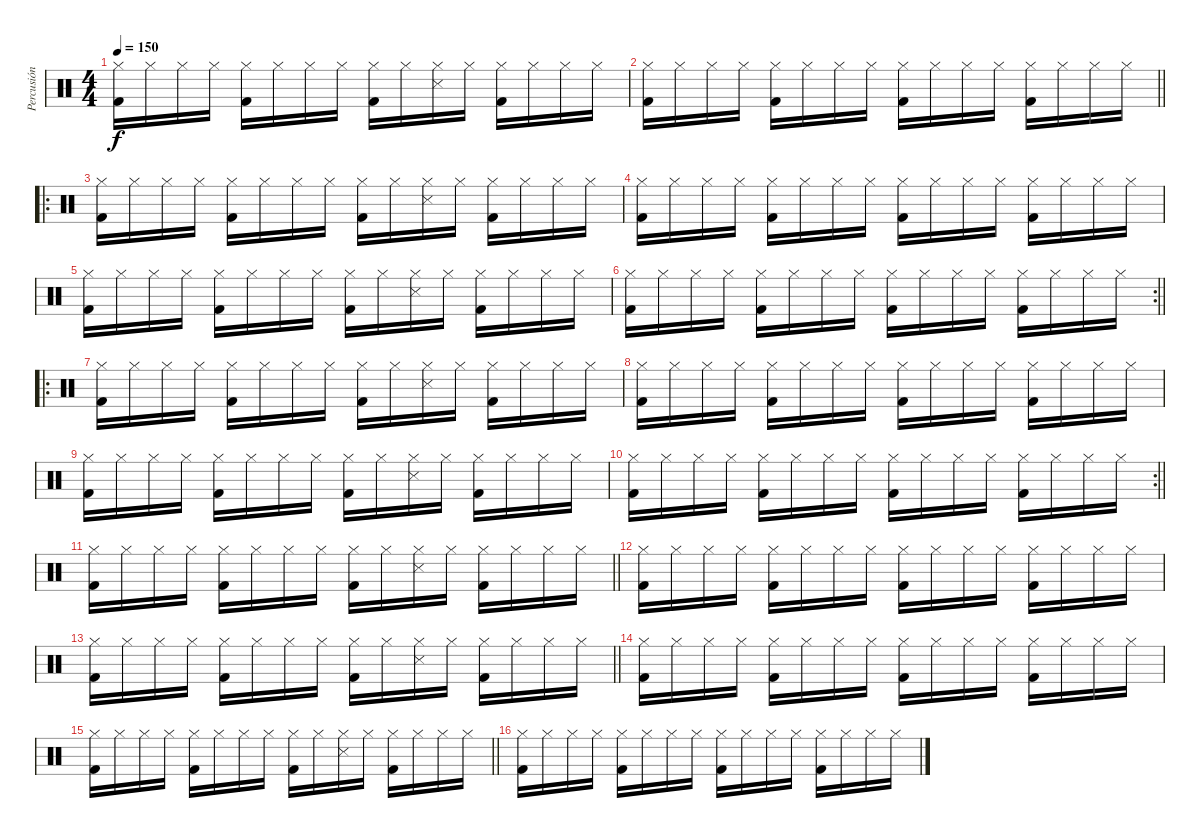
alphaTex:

\track ("Percusión" "Percusión") {instrument percussion}
\staff {score}
\articulation defaults
\ts (4 4)
\tempo 150
\clef neutral
\ks c
("Kick (hit) 2" "Hi-Hat (closed)").16{dy f} "Hi-Hat (closed)".16 "Hi-Hat (closed)".16 "Hi-Hat (closed)".16 ("Kick (hit) 2" "Hi-Hat (closed)").16 "Hi-Hat (closed)".16 "Hi-Hat (closed)".16 "Hi-Hat (closed)".16 ("Kick (hit) 2" "Hi-Hat (closed)").16 "Hi-Hat (closed)".16 ("Snare (side stick) 3" "Hi-Hat (closed)").16 "Hi-Hat (closed)".16 ("Kick (hit) 2" "Hi-Hat (closed)").16 "Hi-Hat (closed)".16 "Hi-Hat (closed)".16 "Hi-Hat (closed)".16 |
\barLineRight lightlight
("Kick (hit) 2" "Hi-Hat (closed)").16 "Hi-Hat (closed)".16 "Hi-Hat (closed)".16 "Hi-Hat (closed)".16 ("Kick (hit) 2" "Hi-Hat (closed)").16 "Hi-Hat (closed)".16 "Hi-Hat (closed)".16 "Hi-Hat (closed)".16 ("Kick (hit) 2" "Hi-Hat (closed)").16 "Hi-Hat (closed)".16 "Hi-Hat (closed)".16 "Hi-Hat (closed)".16 ("Kick (hit) 2" "Hi-Hat (closed)").16 "Hi-Hat (closed)".16 "Hi-Hat (closed)".16 "Hi-Hat (closed)".16 |
\ro
("Kick (hit) 2" "Hi-Hat (closed)").16 "Hi-Hat (closed)".16 "Hi-Hat (closed)".16 "Hi-Hat (closed)".16 ("Kick (hit) 2" "Hi-Hat (closed)").16 "Hi-Hat (closed)".16 "Hi-Hat (closed)".16 "Hi-Hat (closed)".16 ("Kick (hit) 2" "Hi-Hat (closed)").16 "Hi-Hat (closed)".16 ("Snare (side stick) 3" "Hi-Hat (closed)").16 "Hi-Hat (closed)".16 ("Kick (hit) 2" "Hi-Hat (closed)").16 "Hi-Hat (closed)".16 "Hi-Hat (closed)".16 "Hi-Hat (closed)".16 |
("Kick (hit) 2" "Hi-Hat (closed)").16 "Hi-Hat (closed)".16 "Hi-Hat (closed)".16 "Hi-Hat (closed)".16 ("Kick (hit) 2" "Hi-Hat (closed)").16 "Hi-Hat (closed)".16 "Hi-Hat (closed)".16 "Hi-Hat (closed)".16 ("Kick (hit) 2" "Hi-Hat (closed)").16 "Hi-Hat (closed)".16 "Hi-Hat (closed)".16 "Hi-Hat (closed)".16 ("Kick (hit) 2" "Hi-Hat (closed)").16 "Hi-Hat (closed)".16 "Hi-Hat (closed)".16 "Hi-Hat (closed)".16 |
("Kick (hit) 2" "Hi-Hat (closed)").16 "Hi-Hat (closed)".16 "Hi-Hat (closed)".16 "Hi-Hat (closed)".16 ("Kick (hit) 2" "Hi-Hat (closed)").16 "Hi-Hat (closed)".16 "Hi-Hat (closed)".16 "Hi-Hat (closed)".16 ("Kick (hit) 2" "Hi-Hat (closed)").16 "Hi-Hat (closed)".16 ("Snare (side stick) 3" "Hi-Hat (closed)").16 "Hi-Hat (closed)".16 ("Kick (hit) 2" "Hi-Hat (closed)").16 "Hi-Hat (closed)".16 "Hi-Hat (closed)".16 "Hi-Hat (closed)".16 |
\rc 2
\barLineRight lightlight
("Kick (hit) 2" "Hi-Hat (closed)").16 "Hi-Hat (closed)".16 "Hi-Hat (closed)".16 "Hi-Hat (closed)".16 ("Kick (hit) 2" "Hi-Hat (closed)").16 "Hi-Hat (closed)".16 "Hi-Hat (closed)".16 "Hi-Hat (closed)".16 ("Kick (hit) 2" "Hi-Hat (closed)").16 "Hi-Hat (closed)".16 "Hi-Hat (closed)".16 "Hi-Hat (closed)".16 ("Kick (hit) 2" "Hi-Hat (closed)").16 "Hi-Hat (closed)".16 "Hi-Hat (closed)".16 "Hi-Hat (closed)".16 |
\ro
("Kick (hit) 2" "Hi-Hat (closed)").16 "Hi-Hat (closed)".16 "Hi-Hat (closed)".16 "Hi-Hat (closed)".16 ("Kick (hit) 2" "Hi-Hat (closed)").16 "Hi-Hat (closed)".16 "Hi-Hat (closed)".16 "Hi-Hat (closed)".16 ("Kick (hit) 2" "Hi-Hat (closed)").16 "Hi-Hat (closed)".16 ("Snare (side stick) 3" "Hi-Hat (closed)").16 "Hi-Hat (closed)".16 ("Kick (hit) 2" "Hi-Hat (closed)").16 "Hi-Hat (closed)".16 "Hi-Hat (closed)".16 "Hi-Hat (closed)".16 |
("Kick (hit) 2" "Hi-Hat (closed)").16 "Hi-Hat (closed)".16 "Hi-Hat (closed)".16 "Hi-Hat (closed)".16 ("Kick (hit) 2" "Hi-Hat (closed)").16 "Hi-Hat (closed)".16 "Hi-Hat (closed)".16 "Hi-Hat (closed)".16 ("Kick (hit) 2" "Hi-Hat (closed)").16 "Hi-Hat (closed)".16 "Hi-Hat (closed)".16 "Hi-Hat (closed)".16 ("Kick (hit) 2" "Hi-Hat (closed)").16 "Hi-Hat (closed)".16 "Hi-Hat (closed)".16 "Hi-Hat (closed)".16 |
("Kick (hit) 2" "Hi-Hat (closed)").16 "Hi-Hat (closed)".16 "Hi-Hat (closed)".16 "Hi-Hat (closed)".16 ("Kick (hit) 2" "Hi-Hat (closed)").16 "Hi-Hat (closed)".16 "Hi-Hat (closed)".16 "Hi-Hat (closed)".16 ("Kick (hit) 2" "Hi-Hat (closed)").16 "Hi-Hat (closed)".16 ("Snare (side stick) 3" "Hi-Hat (closed)").16 "Hi-Hat (closed)".16 ("Kick (hit) 2" "Hi-Hat (closed)").16 "Hi-Hat (closed)".16 "Hi-Hat (closed)".16 "Hi-Hat (closed)".16 |
\rc 2
\barLineRight lightlight
("Kick (hit) 2" "Hi-Hat (closed)").16 "Hi-Hat (closed)".16 "Hi-Hat (closed)".16 "Hi-Hat (closed)".16 ("Kick (hit) 2" "Hi-Hat (closed)").16 "Hi-Hat (closed)".16 "Hi-Hat (closed)".16 "Hi-Hat (closed)".16 ("Kick (hit) 2" "Hi-Hat (closed)").16 "Hi-Hat (closed)".16 "Hi-Hat (closed)".16 "Hi-Hat (closed)".16 ("Kick (hit) 2" "Hi-Hat (closed)").16 "Hi-Hat (closed)".16 "Hi-Hat (closed)".16 "Hi-Hat (closed)".16 |
\barLineRight lightlight
("Kick (hit) 2" "Hi-Hat (closed)").16 "Hi-Hat (closed)".16 "Hi-Hat (closed)".16 "Hi-Hat (closed)".16 ("Kick (hit) 2" "Hi-Hat (closed)").16 "Hi-Hat (closed)".16 "Hi-Hat (closed)".16 "Hi-Hat (closed)".16 ("Kick (hit) 2" "Hi-Hat (closed)").16 "Hi-Hat (closed)".16 ("Snare (side stick) 3" "Hi-Hat (closed)").16 "Hi-Hat (closed)".16 ("Kick (hit) 2" "Hi-Hat (closed)").16 "Hi-Hat (closed)".16 "Hi-Hat (closed)".16 "Hi-Hat (closed)".16 |
("Kick (hit) 2" "Hi-Hat (closed)").16 "Hi-Hat (closed)".16 "Hi-Hat (closed)".16 "Hi-Hat (closed)".16 ("Kick (hit) 2" "Hi-Hat (closed)").16 "Hi-Hat (closed)".16 "Hi-Hat (closed)".16 "Hi-Hat (closed)".16 ("Kick (hit) 2" "Hi-Hat (closed)").16 "Hi-Hat (closed)".16 "Hi-Hat (closed)".16 "Hi-Hat (closed)".16 ("Kick (hit) 2" "Hi-Hat (closed)").16 "Hi-Hat (closed)".16 "Hi-Hat (closed)".16 "Hi-Hat (closed)".16 |
\barLineRight lightlight
("Kick (hit) 2" "Hi-Hat (closed)").16 "Hi-Hat (closed)".16 "Hi-Hat (closed)".16 "Hi-Hat (closed)".16 ("Kick (hit) 2" "Hi-Hat (closed)").16 "Hi-Hat (closed)".16 "Hi-Hat (closed)".16 "Hi-Hat (closed)".16 ("Kick (hit) 2" "Hi-Hat (closed)").16 "Hi-Hat (closed)".16 ("Snare (side stick) 3" "Hi-Hat (closed)").16 "Hi-Hat (closed)".16 ("Kick (hit) 2" "Hi-Hat (closed)").16 "Hi-Hat (closed)".16 "Hi-Hat (closed)".16 "Hi-Hat (closed)".16 |
("Kick (hit) 2" "Hi-Hat (closed)").16 "Hi-Hat (closed)".16 "Hi-Hat (closed)".16 "Hi-Hat (closed)".16 ("Kick (hit) 2" "Hi-Hat (closed)").16 "Hi-Hat (closed)".16 "Hi-Hat (closed)".16 "Hi-Hat (closed)".16 ("Kick (hit) 2" "Hi-Hat (closed)").16 "Hi-Hat (closed)".16 "Hi-Hat (closed)".16 "Hi-Hat (closed)".16 ("Kick (hit) 2" "Hi-Hat (closed)").16 "Hi-Hat (closed)".16 "Hi-Hat (closed)".16 "Hi-Hat (closed)".16 |
\barLineRight lightlight
("Kick (hit) 2" "Hi-Hat (closed)").16 "Hi-Hat (closed)".16 "Hi-Hat (closed)".16 "Hi-Hat (closed)".16 ("Kick (hit) 2" "Hi-Hat (closed)").16 "Hi-Hat (closed)".16 "Hi-Hat (closed)".16 "Hi-Hat (closed)".16 ("Kick (hit) 2" "Hi-Hat (closed)").16 "Hi-Hat (closed)".16 ("Snare (side stick) 3" "Hi-Hat (closed)").16 "Hi-Hat (closed)".16 ("Kick (hit) 2" "Hi-Hat (closed)").16 "Hi-Hat (closed)".16 "Hi-Hat (closed)".16 "Hi-Hat (closed)".16 |
("Kick (hit) 2" "Hi-Hat (closed)").16 "Hi-Hat (closed)".16 "Hi-Hat (closed)".16 "Hi-Hat (closed)".16 ("Kick (hit) 2" "Hi-Hat (closed)").16 "Hi-Hat (closed)".16 "Hi-Hat (closed)".16 "Hi-Hat (closed)".16 ("Kick (hit) 2" "Hi-Hat (closed)").16 "Hi-Hat (closed)".16 "Hi-Hat (closed)".16 "Hi-Hat (closed)".16 ("Kick (hit) 2" "Hi-Hat (closed)").16 "Hi-Hat (closed)".16 "Hi-Hat (closed)".16 "Hi-Hat (closed)".16
